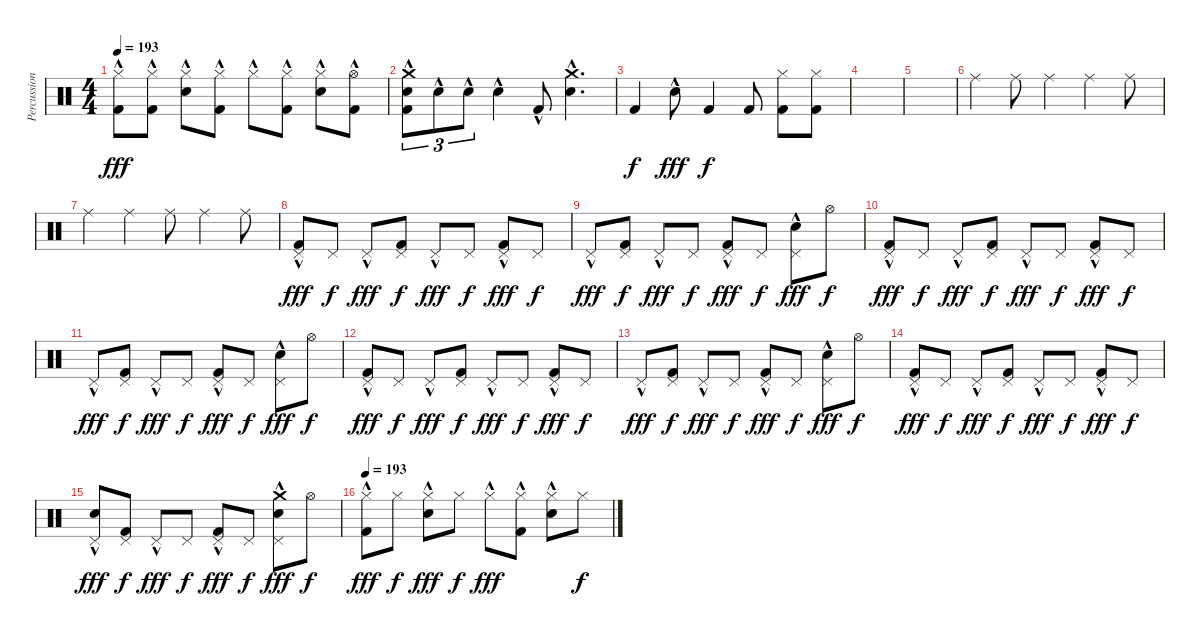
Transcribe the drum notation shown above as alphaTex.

\track ("Percussion" "Percussion") {instrument percussion}
\staff {score}
\articulation defaults
\ts (4 4)
\tempo 193
\clef neutral
\ks c
("Hi-Hat (closed)"{hac} "Kick (hit) 2"{hac}).8{dy fff} ("Hi-Hat (closed)" "Kick (hit) 2"{hac}).8 ("Hi-Hat (closed)"{hac} "Electric Snare (hit)"{hac}).8 ("Hi-Hat (closed)" "Kick (hit) 2"{hac}).8 "Hi-Hat (closed)"{hac}.8 ("Hi-Hat (closed)" "Kick (hit) 2"{hac}).8 ("Hi-Hat (closed)"{hac} "Electric Snare (hit)"{hac}).8 ("Hi-Hat (open)" "Kick (hit) 2"{hac}).8 |
("Crash medium (hit)" "Electric Snare (hit)"{hac} "Kick (hit) 2"{hac}).8{tu (3 2)} "Electric Snare (hit)"{hac}.8{tu (3 2)} "Electric Snare (hit)"{hac}.8{tu (3 2)} "Electric Snare (hit)"{hac}.4 "Kick (hit) 2"{hac}.8 ("Crash medium (hit)" "Electric Snare (hit)"{hac}).4{d} |
"Kick (hit) 2".4{dy f} "Electric Snare (hit)"{hac}.8{dy fff} "Kick (hit) 2".4{dy f} "Kick (hit) 2".8 ("Hi-Hat (closed)" "Kick (hit) 2").8 ("Hi-Hat (closed)" "Kick (hit) 2").8 |
|
|
"Ride (middle)".4 "Ride (middle)".8 "Ride (middle)".4 "Ride (middle)".4 "Ride (middle)".8 |
"Ride (middle)".4 "Ride (middle)".4 "Ride (middle)".8 "Ride (middle)".4 "Ride (middle)".8 |
("Pedal Hi-Hat (hit)"{hac} "Kick (hit) 2").8{dy fff} "Pedal Hi-Hat (hit)".8{dy f} "Pedal Hi-Hat (hit)"{hac}.8{dy fff} ("Pedal Hi-Hat (hit)" "Kick (hit) 2").8{dy f} "Pedal Hi-Hat (hit)"{hac}.8{dy fff} "Pedal Hi-Hat (hit)".8{dy f} ("Pedal Hi-Hat (hit)"{hac} "Kick (hit) 2").8{dy fff} "Pedal Hi-Hat (hit)".8{dy f} |
"Pedal Hi-Hat (hit)"{hac}.8{dy fff} ("Pedal Hi-Hat (hit)" "Kick (hit) 2").8{dy f} "Pedal Hi-Hat (hit)"{hac}.8{dy fff} "Pedal Hi-Hat (hit)".8{dy f} ("Pedal Hi-Hat (hit)"{hac} "Kick (hit) 2").8{dy fff} "Pedal Hi-Hat (hit)".8{dy f} ("Pedal Hi-Hat (hit)"{hac} "Electric Snare (hit)"{hac}).8{dy fff} "Hi-Hat (open)".8{dy f} |
("Pedal Hi-Hat (hit)"{hac} "Kick (hit) 2").8{dy fff} "Pedal Hi-Hat (hit)".8{dy f} "Pedal Hi-Hat (hit)"{hac}.8{dy fff} ("Pedal Hi-Hat (hit)" "Kick (hit) 2").8{dy f} "Pedal Hi-Hat (hit)"{hac}.8{dy fff} "Pedal Hi-Hat (hit)".8{dy f} ("Pedal Hi-Hat (hit)"{hac} "Kick (hit) 2").8{dy fff} "Pedal Hi-Hat (hit)".8{dy f} |
"Pedal Hi-Hat (hit)"{hac}.8{dy fff} ("Pedal Hi-Hat (hit)" "Kick (hit) 2").8{dy f} "Pedal Hi-Hat (hit)"{hac}.8{dy fff} "Pedal Hi-Hat (hit)".8{dy f} ("Pedal Hi-Hat (hit)"{hac} "Kick (hit) 2").8{dy fff} "Pedal Hi-Hat (hit)".8{dy f} ("Pedal Hi-Hat (hit)"{hac} "Electric Snare (hit)"{hac}).8{dy fff} "Hi-Hat (open)".8{dy f} |
("Pedal Hi-Hat (hit)"{hac} "Kick (hit) 2").8{dy fff} "Pedal Hi-Hat (hit)".8{dy f} "Pedal Hi-Hat (hit)"{hac}.8{dy fff} ("Pedal Hi-Hat (hit)" "Kick (hit) 2").8{dy f} "Pedal Hi-Hat (hit)"{hac}.8{dy fff} "Pedal Hi-Hat (hit)".8{dy f} ("Pedal Hi-Hat (hit)"{hac} "Kick (hit) 2").8{dy fff} "Pedal Hi-Hat (hit)".8{dy f} |
"Pedal Hi-Hat (hit)"{hac}.8{dy fff} ("Pedal Hi-Hat (hit)" "Kick (hit) 2").8{dy f} "Pedal Hi-Hat (hit)"{hac}.8{dy fff} "Pedal Hi-Hat (hit)".8{dy f} ("Pedal Hi-Hat (hit)"{hac} "Kick (hit) 2").8{dy fff} "Pedal Hi-Hat (hit)".8{dy f} ("Pedal Hi-Hat (hit)"{hac} "Electric Snare (hit)"{hac}).8{dy fff} "Hi-Hat (open)".8{dy f} |
("Pedal Hi-Hat (hit)"{hac} "Kick (hit) 2").8{dy fff} "Pedal Hi-Hat (hit)".8{dy f} "Pedal Hi-Hat (hit)"{hac}.8{dy fff} ("Pedal Hi-Hat (hit)" "Kick (hit) 2").8{dy f} "Pedal Hi-Hat (hit)"{hac}.8{dy fff} "Pedal Hi-Hat (hit)".8{dy f} ("Pedal Hi-Hat (hit)"{hac} "Kick (hit) 2").8{dy fff} "Pedal Hi-Hat (hit)".8{dy f} |
("Pedal Hi-Hat (hit)"{hac} "Electric Snare (hit)"{hac}).8{dy fff} ("Pedal Hi-Hat (hit)" "Kick (hit) 2").8{dy f} "Pedal Hi-Hat (hit)"{hac}.8{dy fff} "Pedal Hi-Hat (hit)".8{dy f} ("Pedal Hi-Hat (hit)"{hac} "Kick (hit) 2").8{dy fff} "Pedal Hi-Hat (hit)".8{dy f} ("Crash medium (hit)" "Pedal Hi-Hat (hit)"{hac} "Electric Snare (hit)"{hac}).8{dy fff} "Hi-Hat (open)".8{dy f} |
\tempo 193
("Hi-Hat (closed)"{hac} "Kick (hit) 2"{hac}).8{dy fff} "Hi-Hat (closed)".8{dy f} ("Hi-Hat (closed)"{hac} "Electric Snare (hit)"{hac}).8{dy fff} "Hi-Hat (closed)".8{dy f} "Hi-Hat (closed)"{hac}.8{dy fff} ("Hi-Hat (closed)" "Kick (hit) 2"{hac}).8 ("Hi-Hat (closed)"{hac} "Electric Snare (hit)"{hac}).8 "Hi-Hat (closed)".8{dy f}
